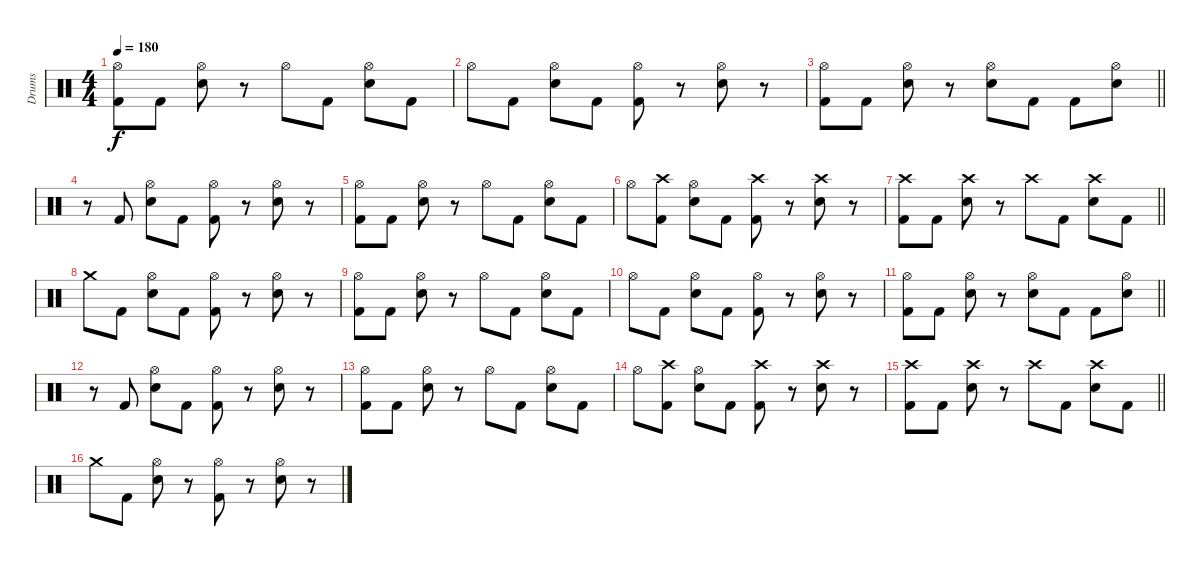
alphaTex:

\track ("Drums" "Drums") {instrument percussion}
\staff {score}
\articulation defaults
\ts (4 4)
\tempo 180
\clef neutral
\ks c
("Hi-Hat (open)" "Kick (hit) 2").8{dy f} "Kick (hit) 2".8 ("Hi-Hat (open)" "Electric Snare (hit)").8 r.8 "Hi-Hat (open)".8 "Kick (hit) 2".8 ("Hi-Hat (open)" "Electric Snare (hit)").8 "Kick (hit) 2".8 |
"Hi-Hat (open)".8 "Kick (hit) 2".8 ("Hi-Hat (open)" "Electric Snare (hit)").8 "Kick (hit) 2".8 ("Hi-Hat (open)" "Kick (hit) 2").8 r.8 ("Hi-Hat (open)" "Electric Snare (hit)").8 r.8 |
\barLineRight lightlight
("Hi-Hat (open)" "Kick (hit) 2").8 "Kick (hit) 2".8 ("Hi-Hat (open)" "Electric Snare (hit)").8 r.8 ("Hi-Hat (open)" "Electric Snare (hit)").8 "Kick (hit) 2".8 "Kick (hit) 2".8 ("Hi-Hat (open)" "Electric Snare (hit)").8 |
r.8 "Kick (hit) 2".8 ("Hi-Hat (open)" "Electric Snare (hit)").8 "Kick (hit) 2".8 ("Hi-Hat (open)" "Kick (hit) 2").8 r.8 ("Hi-Hat (open)" "Electric Snare (hit)").8 r.8 |
("Hi-Hat (open)" "Kick (hit) 2").8 "Kick (hit) 2".8 ("Hi-Hat (open)" "Electric Snare (hit)").8 r.8 "Hi-Hat (open)".8 "Kick (hit) 2".8 ("Hi-Hat (open)" "Electric Snare (hit)").8 "Kick (hit) 2".8 |
"Hi-Hat (open)".8 ("Crash high (hit)" "Kick (hit) 2").8 ("Hi-Hat (open)" "Electric Snare (hit)").8 "Kick (hit) 2".8 ("Crash high (hit)" "Kick (hit) 2").8 r.8 ("Crash high (hit)" "Electric Snare (hit)").8 r.8 |
\barLineRight lightlight
("Crash high (hit)" "Kick (hit) 2").8 "Kick (hit) 2".8 ("Crash high (hit)" "Electric Snare (hit)").8 r.8 "Crash high (hit)".8 "Kick (hit) 2".8 ("Crash high (hit)" "Electric Snare (hit)").8 "Kick (hit) 2".8 |
"Crash medium (hit)".8 "Kick (hit) 2".8 ("Hi-Hat (open)" "Electric Snare (hit)").8 "Kick (hit) 2".8 ("Hi-Hat (open)" "Kick (hit) 2").8 r.8 ("Hi-Hat (open)" "Electric Snare (hit)").8 r.8 |
("Hi-Hat (open)" "Kick (hit) 2").8 "Kick (hit) 2".8 ("Hi-Hat (open)" "Electric Snare (hit)").8 r.8 "Hi-Hat (open)".8 "Kick (hit) 2".8 ("Hi-Hat (open)" "Electric Snare (hit)").8 "Kick (hit) 2".8 |
"Hi-Hat (open)".8 "Kick (hit) 2".8 ("Hi-Hat (open)" "Electric Snare (hit)").8 "Kick (hit) 2".8 ("Hi-Hat (open)" "Kick (hit) 2").8 r.8 ("Hi-Hat (open)" "Electric Snare (hit)").8 r.8 |
\barLineRight lightlight
("Hi-Hat (open)" "Kick (hit) 2").8 "Kick (hit) 2".8 ("Hi-Hat (open)" "Electric Snare (hit)").8 r.8 ("Hi-Hat (open)" "Electric Snare (hit)").8 "Kick (hit) 2".8 "Kick (hit) 2".8 ("Hi-Hat (open)" "Electric Snare (hit)").8 |
r.8 "Kick (hit) 2".8 ("Hi-Hat (open)" "Electric Snare (hit)").8 "Kick (hit) 2".8 ("Hi-Hat (open)" "Kick (hit) 2").8 r.8 ("Hi-Hat (open)" "Electric Snare (hit)").8 r.8 |
("Hi-Hat (open)" "Kick (hit) 2").8 "Kick (hit) 2".8 ("Hi-Hat (open)" "Electric Snare (hit)").8 r.8 "Hi-Hat (open)".8 "Kick (hit) 2".8 ("Hi-Hat (open)" "Electric Snare (hit)").8 "Kick (hit) 2".8 |
"Hi-Hat (open)".8 ("Crash high (hit)" "Kick (hit) 2").8 ("Hi-Hat (open)" "Electric Snare (hit)").8 "Kick (hit) 2".8 ("Crash high (hit)" "Kick (hit) 2").8 r.8 ("Crash high (hit)" "Electric Snare (hit)").8 r.8 |
\barLineRight lightlight
("Crash high (hit)" "Kick (hit) 2").8 "Kick (hit) 2".8 ("Crash high (hit)" "Electric Snare (hit)").8 r.8 "Crash high (hit)".8 "Kick (hit) 2".8 ("Crash high (hit)" "Electric Snare (hit)").8 "Kick (hit) 2".8 |
"Crash medium (hit)".8 "Kick (hit) 2".8 ("Hi-Hat (open)" "Electric Snare (hit)").8 r.8 ("Hi-Hat (open)" "Kick (hit) 2").8 r.8 ("Hi-Hat (open)" "Electric Snare (hit)").8 r.8
